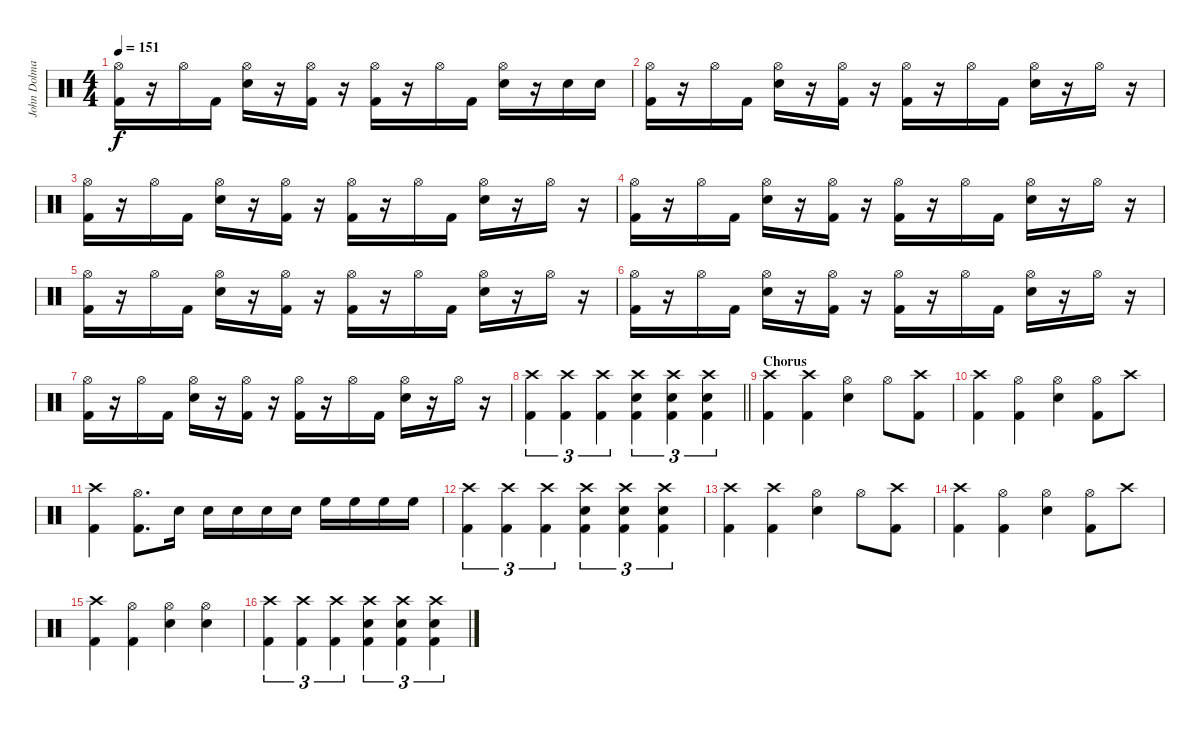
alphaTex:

\track ("John Dolmayan" "John Dolma") {instrument percussion}
\staff {score}
\articulation defaults
\ts (4 4)
\tempo 151
\clef neutral
\ks c
("Hi-Hat (open)" "Kick (hit) 2").16{dy f} r.16 "Hi-Hat (open)".16 "Kick (hit) 2".16 ("Hi-Hat (open)" "Snare (hit) 2").16 r.16 ("Hi-Hat (open)" "Kick (hit) 2").16 r.16 ("Hi-Hat (open)" "Kick (hit) 2").16 r.16 "Hi-Hat (open)".16 "Kick (hit) 2".16 ("Hi-Hat (open)" "Snare (hit) 2").16 r.16 "Snare (hit) 2".16 "Snare (hit) 2".16 |
("Hi-Hat (open)" "Kick (hit) 2").16 r.16 "Hi-Hat (open)".16 "Kick (hit) 2".16 ("Hi-Hat (open)" "Snare (hit) 2").16 r.16 ("Hi-Hat (open)" "Kick (hit) 2").16 r.16 ("Hi-Hat (open)" "Kick (hit) 2").16 r.16 "Hi-Hat (open)".16 "Kick (hit) 2".16 ("Hi-Hat (open)" "Snare (hit) 2").16 r.16 "Hi-Hat (open)".16 r.16 |
("Hi-Hat (open)" "Kick (hit) 2").16 r.16 "Hi-Hat (open)".16 "Kick (hit) 2".16 ("Hi-Hat (open)" "Snare (hit) 2").16 r.16 ("Hi-Hat (open)" "Kick (hit) 2").16 r.16 ("Hi-Hat (open)" "Kick (hit) 2").16 r.16 "Hi-Hat (open)".16 "Kick (hit) 2".16 ("Hi-Hat (open)" "Snare (hit) 2").16 r.16 "Hi-Hat (open)".16 r.16 |
("Hi-Hat (open)" "Kick (hit) 2").16 r.16 "Hi-Hat (open)".16 "Kick (hit) 2".16 ("Hi-Hat (open)" "Snare (hit) 2").16 r.16 ("Hi-Hat (open)" "Kick (hit) 2").16 r.16 ("Hi-Hat (open)" "Kick (hit) 2").16 r.16 "Hi-Hat (open)".16 "Kick (hit) 2".16 ("Hi-Hat (open)" "Snare (hit) 2").16 r.16 "Hi-Hat (open)".16 r.16 |
("Hi-Hat (open)" "Kick (hit) 2").16 r.16 "Hi-Hat (open)".16 "Kick (hit) 2".16 ("Hi-Hat (open)" "Snare (hit) 2").16 r.16 ("Hi-Hat (open)" "Kick (hit) 2").16 r.16 ("Hi-Hat (open)" "Kick (hit) 2").16 r.16 "Hi-Hat (open)".16 "Kick (hit) 2".16 ("Hi-Hat (open)" "Snare (hit) 2").16 r.16 "Hi-Hat (open)".16 r.16 |
("Hi-Hat (open)" "Kick (hit) 2").16 r.16 "Hi-Hat (open)".16 "Kick (hit) 2".16 ("Hi-Hat (open)" "Snare (hit) 2").16 r.16 ("Hi-Hat (open)" "Kick (hit) 2").16 r.16 ("Hi-Hat (open)" "Kick (hit) 2").16 r.16 "Hi-Hat (open)".16 "Kick (hit) 2".16 ("Hi-Hat (open)" "Snare (hit) 2").16 r.16 "Hi-Hat (open)".16 r.16 |
("Hi-Hat (open)" "Kick (hit) 2").16 r.16 "Hi-Hat (open)".16 "Kick (hit) 2".16 ("Hi-Hat (open)" "Snare (hit) 2").16 r.16 ("Hi-Hat (open)" "Kick (hit) 2").16 r.16 ("Hi-Hat (open)" "Kick (hit) 2").16 r.16 "Hi-Hat (open)".16 "Kick (hit) 2".16 ("Hi-Hat (open)" "Snare (hit) 2").16 r.16 "Hi-Hat (open)".16 r.16 |
\barLineRight lightlight
("Crash high (hit)" "Kick (hit) 2").4{tu (3 2)} ("Crash high (hit)" "Kick (hit) 2").4{tu (3 2)} ("Crash high (hit)" "Kick (hit) 2").4{tu (3 2)} ("Crash high (hit)" "Snare (hit) 2" "Kick (hit) 2").4{tu (3 2)} ("Crash high (hit)" "Snare (hit) 2" "Kick (hit) 2").4{tu (3 2)} ("Crash high (hit)" "Snare (hit) 2" "Kick (hit) 2").4{tu (3 2)} |
\section ("" "Chorus")
("Crash high (hit)" "Kick (hit) 2").4 ("Crash high (hit)" "Kick (hit) 2").4 ("Hi-Hat (open)" "Snare (hit) 2").4 "Hi-Hat (open)".8 ("Crash high (hit)" "Kick (hit) 2").8 |
("Crash high (hit)" "Kick (hit) 2").4 ("Hi-Hat (open)" "Kick (hit) 2").4 ("Hi-Hat (open)" "Snare (hit) 2").4 ("Hi-Hat (open)" "Kick (hit) 2").8 "Crash high (hit)".8 |
("Crash high (hit)" "Kick (hit) 2").4 ("Hi-Hat (open)" "Kick (hit) 2").8{d} "Snare (hit) 2".16 "Snare (hit) 2".16 "Snare (hit) 2".16 "Snare (hit) 2".16 "Snare (hit) 2".16 "High Floor Tom (hit)".16 "High Floor Tom (hit)".16 "High Floor Tom (hit)".16 "High Floor Tom (hit)".16 |
("Crash high (hit)" "Kick (hit) 2").4{tu (3 2)} ("Crash high (hit)" "Kick (hit) 2").4{tu (3 2)} ("Crash high (hit)" "Kick (hit) 2").4{tu (3 2)} ("Crash high (hit)" "Snare (hit) 2" "Kick (hit) 2").4{tu (3 2)} ("Crash high (hit)" "Snare (hit) 2" "Kick (hit) 2").4{tu (3 2)} ("Crash high (hit)" "Snare (hit) 2" "Kick (hit) 2").4{tu (3 2)} |
("Crash high (hit)" "Kick (hit) 2").4 ("Crash high (hit)" "Kick (hit) 2").4 ("Hi-Hat (open)" "Snare (hit) 2").4 "Hi-Hat (open)".8 ("Crash high (hit)" "Kick (hit) 2").8 |
("Crash high (hit)" "Kick (hit) 2").4 ("Hi-Hat (open)" "Kick (hit) 2").4 ("Hi-Hat (open)" "Snare (hit) 2").4 ("Hi-Hat (open)" "Kick (hit) 2").8 "Crash high (hit)".8 |
("Crash high (hit)" "Kick (hit) 2").4 ("Hi-Hat (open)" "Kick (hit) 2").4 ("Hi-Hat (open)" "Snare (hit) 2").4 ("Hi-Hat (open)" "Snare (hit) 2").4 |
("Crash high (hit)" "Kick (hit) 2").4{tu (3 2)} ("Crash high (hit)" "Kick (hit) 2").4{tu (3 2)} ("Crash high (hit)" "Kick (hit) 2").4{tu (3 2)} ("Crash high (hit)" "Snare (hit) 2" "Kick (hit) 2").4{tu (3 2)} ("Crash high (hit)" "Snare (hit) 2" "Kick (hit) 2").4{tu (3 2)} ("Crash high (hit)" "Snare (hit) 2" "Kick (hit) 2").4{tu (3 2)}
